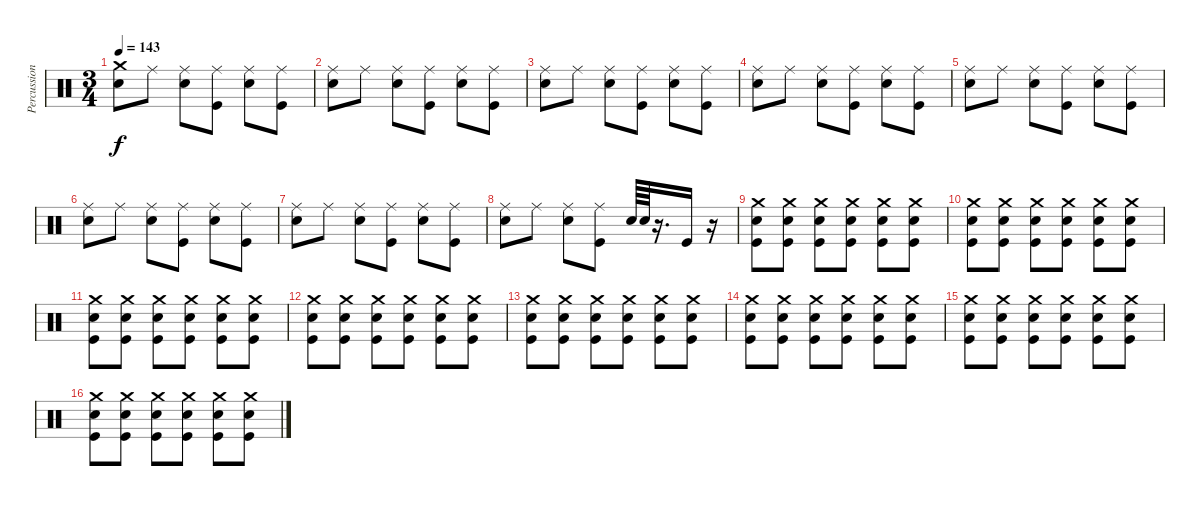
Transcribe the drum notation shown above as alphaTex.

\track ("Percussion" "Percussion") {instrument percussion}
\staff {score}
\articulation defaults
\ts (3 4)
\tempo 143
\clef neutral
\ks c
("Crash medium (hit)" "Electric Snare (hit)").8{dy f} "Ride (middle)".8 ("Ride (middle)" "Electric Snare (hit)").8 ("Ride (middle)" "Kick (hit)").8 ("Ride (middle)" "Electric Snare (hit)").8 ("Ride (middle)" "Kick (hit)").8 |
("Ride (middle)" "Electric Snare (hit)").8 "Ride (middle)".8 ("Ride (middle)" "Electric Snare (hit)").8 ("Ride (middle)" "Kick (hit)").8 ("Ride (middle)" "Electric Snare (hit)").8 ("Ride (middle)" "Kick (hit)").8 |
("Ride (middle)" "Electric Snare (hit)").8 "Ride (middle)".8 ("Ride (middle)" "Electric Snare (hit)").8 ("Ride (middle)" "Kick (hit)").8 ("Ride (middle)" "Electric Snare (hit)").8 ("Ride (middle)" "Kick (hit)").8 |
("Ride (middle)" "Electric Snare (hit)").8 "Ride (middle)".8 ("Ride (middle)" "Electric Snare (hit)").8 ("Ride (middle)" "Kick (hit)").8 ("Ride (middle)" "Electric Snare (hit)").8 ("Ride (middle)" "Kick (hit)").8 |
("Ride (middle)" "Electric Snare (hit)").8 "Ride (middle)".8 ("Ride (middle)" "Electric Snare (hit)").8 ("Ride (middle)" "Kick (hit)").8 ("Ride (middle)" "Electric Snare (hit)").8 ("Ride (middle)" "Kick (hit)").8 |
("Ride (middle)" "Electric Snare (hit)").8 "Ride (middle)".8 ("Ride (middle)" "Electric Snare (hit)").8 ("Ride (middle)" "Kick (hit)").8 ("Ride (middle)" "Electric Snare (hit)").8 ("Ride (middle)" "Kick (hit)").8 |
("Ride (middle)" "Electric Snare (hit)").8 "Ride (middle)".8 ("Ride (middle)" "Electric Snare (hit)").8 ("Ride (middle)" "Kick (hit)").8 ("Ride (middle)" "Electric Snare (hit)").8 ("Ride (middle)" "Kick (hit)").8 |
("Ride (middle)" "Electric Snare (hit)").8 "Ride (middle)".8 ("Ride (middle)" "Electric Snare (hit)").8 ("Ride (middle)" "Kick (hit)").8 "Electric Snare (hit)".64 "Electric Snare (hit)".64 r.16{d} "Kick (hit)".16 r.16{volume 3} |
("Crash medium (hit)" "Kick (hit)" "Electric Snare (hit)").8{volume 7} ("Crash medium (hit)" "Kick (hit)" "Electric Snare (hit)").8 ("Crash medium (hit)" "Kick (hit)" "Electric Snare (hit)").8 ("Crash medium (hit)" "Kick (hit)" "Electric Snare (hit)").8 ("Crash medium (hit)" "Kick (hit)" "Electric Snare (hit)").8 ("Crash medium (hit)" "Kick (hit)" "Electric Snare (hit)").8 |
("Crash medium (hit)" "Kick (hit)" "Electric Snare (hit)").8 ("Crash medium (hit)" "Kick (hit)" "Electric Snare (hit)").8 ("Crash medium (hit)" "Kick (hit)" "Electric Snare (hit)").8 ("Crash medium (hit)" "Kick (hit)" "Electric Snare (hit)").8 ("Crash medium (hit)" "Kick (hit)" "Electric Snare (hit)").8 ("Crash medium (hit)" "Kick (hit)" "Electric Snare (hit)").8 |
("Crash medium (hit)" "Kick (hit)" "Electric Snare (hit)").8 ("Crash medium (hit)" "Kick (hit)" "Electric Snare (hit)").8 ("Crash medium (hit)" "Kick (hit)" "Electric Snare (hit)").8 ("Crash medium (hit)" "Kick (hit)" "Electric Snare (hit)").8 ("Crash medium (hit)" "Kick (hit)" "Electric Snare (hit)").8 ("Crash medium (hit)" "Kick (hit)" "Electric Snare (hit)").8 |
("Crash medium (hit)" "Kick (hit)" "Electric Snare (hit)").8 ("Crash medium (hit)" "Kick (hit)" "Electric Snare (hit)").8 ("Crash medium (hit)" "Kick (hit)" "Electric Snare (hit)").8 ("Crash medium (hit)" "Kick (hit)" "Electric Snare (hit)").8 ("Crash medium (hit)" "Kick (hit)" "Electric Snare (hit)").8 ("Crash medium (hit)" "Kick (hit)" "Electric Snare (hit)").8 |
("Crash medium (hit)" "Kick (hit)" "Electric Snare (hit)").8 ("Crash medium (hit)" "Kick (hit)" "Electric Snare (hit)").8 ("Crash medium (hit)" "Kick (hit)" "Electric Snare (hit)").8 ("Crash medium (hit)" "Kick (hit)" "Electric Snare (hit)").8 ("Crash medium (hit)" "Kick (hit)" "Electric Snare (hit)").8 ("Crash medium (hit)" "Kick (hit)" "Electric Snare (hit)").8 |
("Crash medium (hit)" "Kick (hit)" "Electric Snare (hit)").8 ("Crash medium (hit)" "Kick (hit)" "Electric Snare (hit)").8 ("Crash medium (hit)" "Kick (hit)" "Electric Snare (hit)").8 ("Crash medium (hit)" "Kick (hit)" "Electric Snare (hit)").8 ("Crash medium (hit)" "Kick (hit)" "Electric Snare (hit)").8 ("Crash medium (hit)" "Kick (hit)" "Electric Snare (hit)").8 |
("Crash medium (hit)" "Kick (hit)" "Electric Snare (hit)").8{volume 13} ("Crash medium (hit)" "Kick (hit)" "Electric Snare (hit)").8 ("Crash medium (hit)" "Kick (hit)" "Electric Snare (hit)").8 ("Crash medium (hit)" "Kick (hit)" "Electric Snare (hit)").8 ("Crash medium (hit)" "Kick (hit)" "Electric Snare (hit)").8 ("Crash medium (hit)" "Kick (hit)" "Electric Snare (hit)").8 |
("Crash medium (hit)" "Kick (hit)" "Electric Snare (hit)").8 ("Crash medium (hit)" "Kick (hit)" "Electric Snare (hit)").8 ("Crash medium (hit)" "Kick (hit)" "Electric Snare (hit)").8 ("Crash medium (hit)" "Kick (hit)" "Electric Snare (hit)").8 ("Crash medium (hit)" "Kick (hit)" "Electric Snare (hit)").8 ("Crash medium (hit)" "Kick (hit)" "Electric Snare (hit)").8
